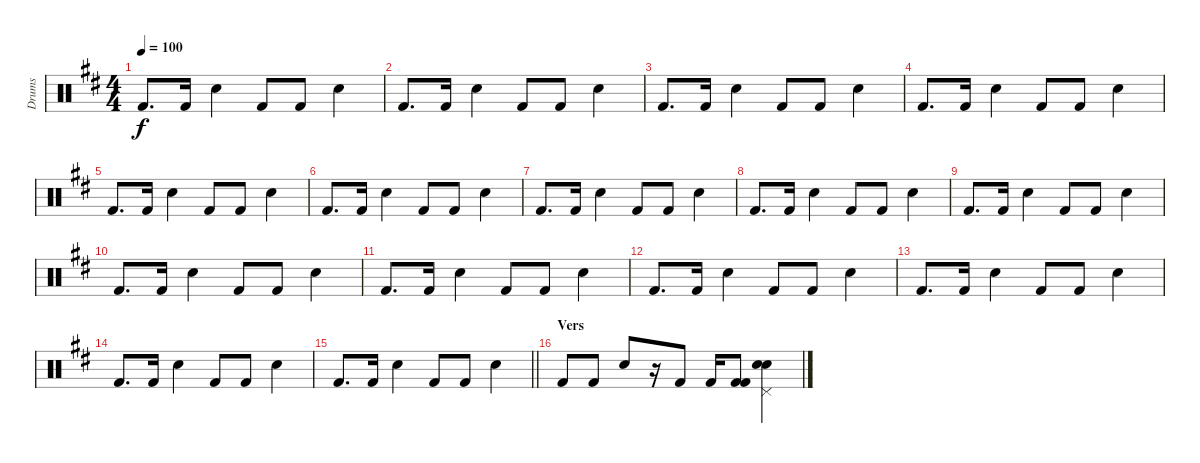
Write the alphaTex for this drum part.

\track ("Drums" "Drums") {instrument percussion}
\staff {score}
\articulation defaults
\ts (4 4)
\tempo 100
\clef neutral
\ks d "Kick (hit) 2".8{d dy f} "Kick (hit) 2".16 "Snare (hit) 2".4 "Kick (hit) 2".8 "Kick (hit) 2".8 "Snare (hit) 2".4
|
"Kick (hit) 2".8{d} "Kick (hit) 2".16 "Snare (hit) 2".4 "Kick (hit) 2".8 "Kick (hit) 2".8 "Snare (hit) 2".4 |
"Kick (hit) 2".8{d} "Kick (hit) 2".16 "Snare (hit) 2".4 "Kick (hit) 2".8 "Kick (hit) 2".8 "Snare (hit) 2".4 |
"Kick (hit) 2".8{d} "Kick (hit) 2".16 "Snare (hit) 2".4 "Kick (hit) 2".8 "Kick (hit) 2".8 "Snare (hit) 2".4 |
"Kick (hit) 2".8{d} "Kick (hit) 2".16 "Snare (hit) 2".4 "Kick (hit) 2".8 "Kick (hit) 2".8 "Snare (hit) 2".4 |
"Kick (hit) 2".8{d} "Kick (hit) 2".16 "Snare (hit) 2".4 "Kick (hit) 2".8 "Kick (hit) 2".8 "Snare (hit) 2".4 |
"Kick (hit) 2".8{d} "Kick (hit) 2".16 "Snare (hit) 2".4 "Kick (hit) 2".8 "Kick (hit) 2".8 "Snare (hit) 2".4 |
"Kick (hit) 2".8{d} "Kick (hit) 2".16 "Snare (hit) 2".4 "Kick (hit) 2".8 "Kick (hit) 2".8 "Snare (hit) 2".4 |
"Kick (hit) 2".8{d} "Kick (hit) 2".16 "Snare (hit) 2".4 "Kick (hit) 2".8 "Kick (hit) 2".8 "Snare (hit) 2".4 |
"Kick (hit) 2".8{d} "Kick (hit) 2".16 "Snare (hit) 2".4 "Kick (hit) 2".8 "Kick (hit) 2".8 "Snare (hit) 2".4 |
"Kick (hit) 2".8{d} "Kick (hit) 2".16 "Snare (hit) 2".4 "Kick (hit) 2".8 "Kick (hit) 2".8 "Snare (hit) 2".4 |
"Kick (hit) 2".8{d} "Kick (hit) 2".16 "Snare (hit) 2".4 "Kick (hit) 2".8 "Kick (hit) 2".8 "Snare (hit) 2".4 |
"Kick (hit) 2".8{d} "Kick (hit) 2".16 "Snare (hit) 2".4 "Kick (hit) 2".8 "Kick (hit) 2".8 "Snare (hit) 2".4 |
"Kick (hit) 2".8{d} "Kick (hit) 2".16 "Snare (hit) 2".4 "Kick (hit) 2".8 "Kick (hit) 2".8 "Snare (hit) 2".4 |
\barLineRight lightlight "Kick (hit) 2".8{d} "Kick (hit) 2".16 "Snare (hit) 2".4 "Kick (hit) 2".8 "Kick (hit) 2".8 "Snare (hit) 2".4
|
\section ("" "Vers")
"Kick (hit) 2".8 "Kick (hit) 2".8 "Snare (hit) 2".8 r.16 "Kick (hit) 2".8 "Kick (hit) 2".16 ("Kick (hit) 2" "Kick (hit) 2").8 ("Snare (hit) 2" "Pedal Hi-Hat (hit)" "Electric Snare (hit)").4
